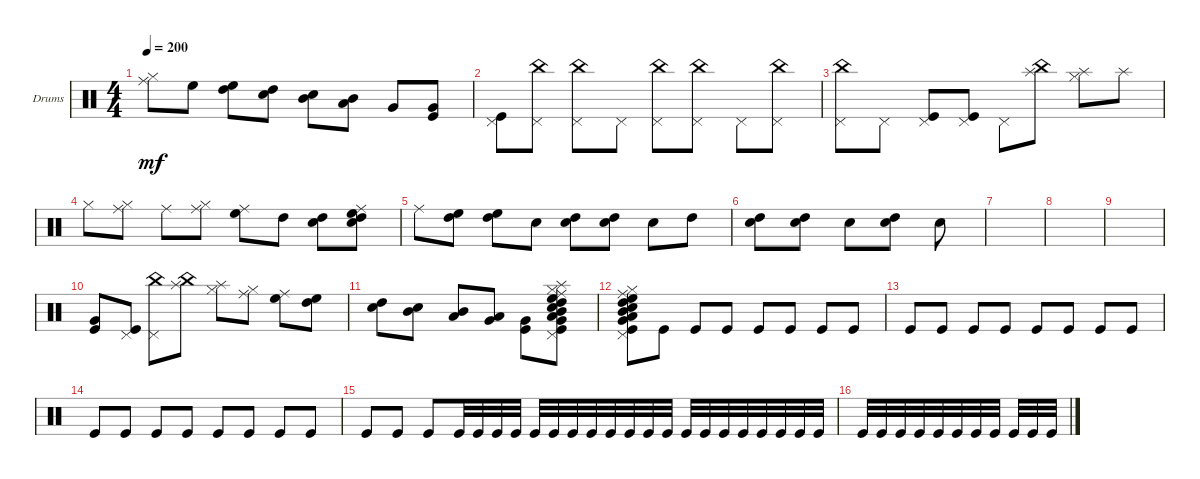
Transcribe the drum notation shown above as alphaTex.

\defaultSystemsLayout 4
\bracketExtendMode groupsimilarinstruments
\firstSystemTrackNameOrientation horizontal
\otherSystemsTrackNameOrientation horizontal
\track ("Drumkit" "Drums") {instrument percussion}
\staff {score}
\articulation defaults
\ts (4 4)
\tempo 200
\clef neutral
\ks c
("Hi-Hat (closed)" "Ride (middle)").8{dy mf} "High Floor Tom (hit)".8 ("High Floor Tom (hit)" "High Tom (hit)").8 ("High Tom (hit)" "Snare (hit) 2").8 ("Snare (hit) 2" "Mid Tom (hit)").8 ("Mid Tom (hit)" "Low Tom (hit)").8 "Very Low Tom (hit)".8 ("Very Low Tom (hit)" "Kick (hit)").8 |
("Kick (hit)" "Pedal Hi-Hat (hit)").8 ("Pedal Hi-Hat (hit)" "China (hit)").8 ("China (hit)" "Pedal Hi-Hat (hit)").8 "Pedal Hi-Hat (hit)".8 ("Pedal Hi-Hat (hit)" "China (hit)").8 ("China (hit)" "Pedal Hi-Hat (hit)").8 "Pedal Hi-Hat (hit)".8 ("China (hit)" "Pedal Hi-Hat (hit)").8 |
("Pedal Hi-Hat (hit)" "China (hit)").8 "Pedal Hi-Hat (hit)".8 ("Pedal Hi-Hat (hit)" "Kick (hit)").8 ("Kick (hit)" "Pedal Hi-Hat (hit)").8 "Pedal Hi-Hat (hit)".8 ("China (hit)" "Splash (hit)").8 ("Splash (hit)" "Hi-Hat (closed)").8 "Splash (hit)".8 |
"Hi-Hat (closed)".8 ("Hi-Hat (closed)" "Ride (middle)").8 "Ride (middle)".8 ("Hi-Hat (closed)" "Ride (middle)").8 ("Ride (middle)" "High Floor Tom (hit)").8 "High Tom (hit)".8 ("High Tom (hit)" "Snare (hit) 2").8 ("Snare (hit) 2" "High Tom (hit)" "High Floor Tom (hit)" "Ride (middle)").8 |
"Ride (middle)".8 ("High Floor Tom (hit)" "High Tom (hit)").8 ("High Floor Tom (hit)" "High Tom (hit)").8 "Snare (hit) 2".8 ("Snare (hit) 2" "High Tom (hit)").8 ("High Tom (hit)" "Snare (hit) 2").8 "Snare (hit) 2".8 "High Tom (hit)".8 |
("Snare (hit) 2" "High Tom (hit)").8 ("High Tom (hit)" "Snare (hit) 2").8 "Snare (hit) 2".8 ("High Tom (hit)" "Snare (hit) 2").8 "Snare (hit) 2".8 |
|
|
|
("Very Low Tom (hit)" "Kick (hit)").8 ("Kick (hit)" "Pedal Hi-Hat (hit)").8 ("Pedal Hi-Hat (hit)" "China (hit)").8 ("China (hit)" "Splash (hit)").8 ("Splash (hit)" "Hi-Hat (closed)").8 ("Hi-Hat (closed)" "Ride (middle)").8 ("Ride (middle)" "High Floor Tom (hit)").8 ("High Floor Tom (hit)" "High Tom (hit)").8 |
("High Tom (hit)" "Snare (hit) 2").8 ("Snare (hit) 2" "Mid Tom (hit)").8 ("Mid Tom (hit)" "Low Tom (hit)").8 ("Low Tom (hit)" "Very Low Tom (hit)").8 ("Very Low Tom (hit)" "Kick (hit)").8 ("Pedal Hi-Hat (hit)" "Kick (hit)" "Very Low Tom (hit)" "Low Tom (hit)" "Mid Tom (hit)" "Snare (hit) 2" "High Tom (hit)" "High Floor Tom (hit)" "Ride (middle)" "Hi-Hat (closed)" "Splash (hit)").8 |
("Hi-Hat (closed)" "Ride (middle)" "High Floor Tom (hit)" "High Tom (hit)" "Snare (hit) 2" "Mid Tom (hit)" "Low Tom (hit)" "Very Low Tom (hit)" "Kick (hit)" "Pedal Hi-Hat (hit)").8 "Kick (hit)".8 "Kick (hit)".8 "Kick (hit)".8 "Kick (hit)".8 "Kick (hit)".8 "Kick (hit)".8 "Kick (hit)".8 |
"Kick (hit)".8 "Kick (hit)".8 "Kick (hit)".8 "Kick (hit)".8 "Kick (hit)".8 "Kick (hit)".8 "Kick (hit)".8 "Kick (hit)".8 |
"Kick (hit)".8 "Kick (hit)".8 "Kick (hit)".8 "Kick (hit)".8 "Kick (hit)".8 "Kick (hit)".8 "Kick (hit)".8 "Kick (hit)".8 |
"Kick (hit)".8 "Kick (hit)".8 "Kick (hit)".8 "Kick (hit)".32 "Kick (hit)".32 "Kick (hit)".32 "Kick (hit)".32 "Kick (hit)".32 "Kick (hit)".32 "Kick (hit)".32 "Kick (hit)".32 "Kick (hit)".32 "Kick (hit)".32 "Kick (hit)".32 "Kick (hit)".32 "Kick (hit)".32 "Kick (hit)".32 "Kick (hit)".32 "Kick (hit)".32 "Kick (hit)".32 "Kick (hit)".32 "Kick (hit)".32 "Kick (hit)".32 |
"Kick (hit)".32 "Kick (hit)".32 "Kick (hit)".32 "Kick (hit)".32 "Kick (hit)".32 "Kick (hit)".32 "Kick (hit)".32 "Kick (hit)".32 "Kick (hit)".32 "Kick (hit)".32 "Kick (hit)".32
